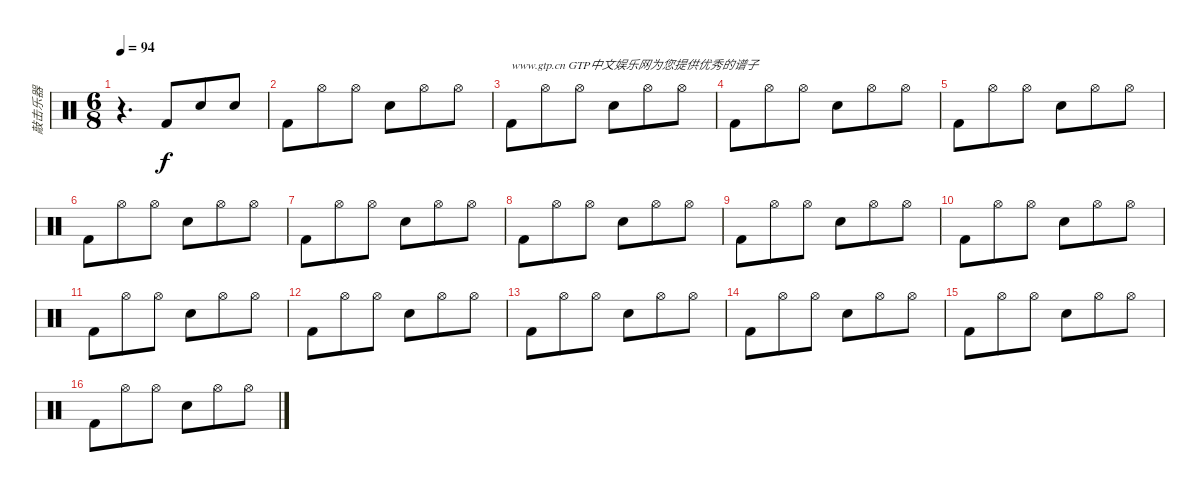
\track ("敲击乐器" "敲击乐器") {instrument percussion}
\staff {score}
\articulation defaults
\ts (6 8)
\tempo 94
\clef neutral
\ks c
r.4{d dy f} "Kick (hit) 2".8 "Electric Snare (hit)".8 "Electric Snare (hit)".8 |
"Kick (hit) 2".8 "Hi-Hat (open)".8 "Hi-Hat (open)".8 "Electric Snare (hit)".8 "Hi-Hat (open)".8 "Hi-Hat (open)".8 |
"Kick (hit) 2".8{txt "www.gtp.cn GTP中文娱乐网为您提供优秀的谱子"} "Hi-Hat (open)".8 "Hi-Hat (open)".8 "Electric Snare (hit)".8 "Hi-Hat (open)".8 "Hi-Hat (open)".8 |
"Kick (hit) 2".8 "Hi-Hat (open)".8 "Hi-Hat (open)".8 "Electric Snare (hit)".8 "Hi-Hat (open)".8 "Hi-Hat (open)".8 |
"Kick (hit) 2".8 "Hi-Hat (open)".8 "Hi-Hat (open)".8 "Electric Snare (hit)".8 "Hi-Hat (open)".8 "Hi-Hat (open)".8 |
"Kick (hit) 2".8 "Hi-Hat (open)".8 "Hi-Hat (open)".8 "Electric Snare (hit)".8 "Hi-Hat (open)".8 "Hi-Hat (open)".8 |
"Kick (hit) 2".8 "Hi-Hat (open)".8 "Hi-Hat (open)".8 "Electric Snare (hit)".8 "Hi-Hat (open)".8 "Hi-Hat (open)".8 |
"Kick (hit) 2".8 "Hi-Hat (open)".8 "Hi-Hat (open)".8 "Electric Snare (hit)".8 "Hi-Hat (open)".8 "Hi-Hat (open)".8 |
"Kick (hit) 2".8 "Hi-Hat (open)".8 "Hi-Hat (open)".8 "Electric Snare (hit)".8 "Hi-Hat (open)".8 "Hi-Hat (open)".8 |
"Kick (hit) 2".8 "Hi-Hat (open)".8 "Hi-Hat (open)".8 "Electric Snare (hit)".8 "Hi-Hat (open)".8 "Hi-Hat (open)".8 |
"Kick (hit) 2".8 "Hi-Hat (open)".8 "Hi-Hat (open)".8 "Electric Snare (hit)".8 "Hi-Hat (open)".8 "Hi-Hat (open)".8 |
"Kick (hit) 2".8 "Hi-Hat (open)".8 "Hi-Hat (open)".8 "Electric Snare (hit)".8 "Hi-Hat (open)".8 "Hi-Hat (open)".8 |
"Kick (hit) 2".8 "Hi-Hat (open)".8 "Hi-Hat (open)".8 "Electric Snare (hit)".8 "Hi-Hat (open)".8 "Hi-Hat (open)".8 |
"Kick (hit) 2".8 "Hi-Hat (open)".8 "Hi-Hat (open)".8 "Electric Snare (hit)".8 "Hi-Hat (open)".8 "Hi-Hat (open)".8 |
"Kick (hit) 2".8 "Hi-Hat (open)".8 "Hi-Hat (open)".8 "Electric Snare (hit)".8 "Hi-Hat (open)".8 "Hi-Hat (open)".8 |
"Kick (hit) 2".8 "Hi-Hat (open)".8 "Hi-Hat (open)".8 "Electric Snare (hit)".8 "Hi-Hat (open)".8 "Hi-Hat (open)".8
